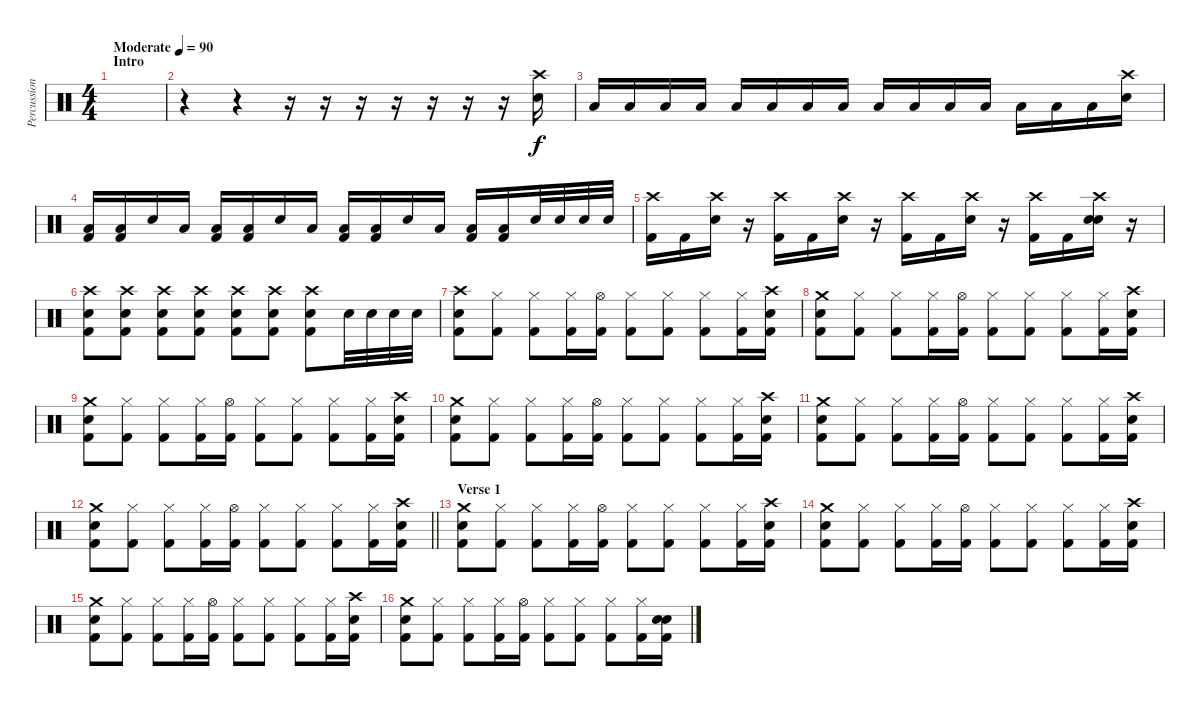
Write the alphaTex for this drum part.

\track ("Percussion" "Percussion") {instrument percussion}
\staff {score}
\articulation defaults
\ts (4 4)
\section ("" "Intro")
\tempo (90 "Moderate")
\clef neutral
\ks c
|
r.4 r.4 r.16 r.16 r.16 r.16 r.16 r.16 r.16 ("Crash high (hit)" "Electric Snare (hit)").16 |
"Low Tom (hit)".16 "Low Tom (hit)".16 "Low Floor Tom (hit)".16 "Low Floor Tom (hit)".16 "Low Tom (hit)".16 "Low Tom (hit)".16 "Low Floor Tom (hit)".16 "Low Floor Tom (hit)".16 "Low Tom (hit)".16 "Low Tom (hit)".16 "Low Floor Tom (hit)".16 "Low Floor Tom (hit)".16 "Low Tom (hit)".16 "Low Tom (hit)".16 "Low Floor Tom (hit)".16 ("Crash high (hit)" "Electric Snare (hit)").16 |
("Low Tom (hit)" "Kick (hit) 2").16 ("Low Tom (hit)" "Kick (hit) 2").16 "Electric Snare (hit)".16 "Low Floor Tom (hit)".16 ("Low Tom (hit)" "Kick (hit) 2").16 ("Low Tom (hit)" "Kick (hit) 2").16 "Electric Snare (hit)".16 "Low Floor Tom (hit)".16 ("Low Tom (hit)" "Kick (hit) 2").16 ("Low Tom (hit)" "Kick (hit) 2").16 "Electric Snare (hit)".16 "Low Floor Tom (hit)".16 ("Low Tom (hit)" "Kick (hit) 2").16 ("Low Tom (hit)" "Kick (hit) 2").16 "Electric Snare (hit)".32 "Electric Snare (hit)".32 "Electric Snare (hit)".32 "Electric Snare (hit)".32 |
("Crash high (hit)" "Kick (hit) 2").16 "Kick (hit) 2".16 ("Crash high (hit)" "Electric Snare (hit)").16 r.16 ("Crash high (hit)" "Kick (hit) 2").16 "Kick (hit) 2".16 ("Crash high (hit)" "Electric Snare (hit)").16 r.16 ("Crash high (hit)" "Kick (hit) 2").16 "Kick (hit) 2".16 ("Crash high (hit)" "Electric Snare (hit)").16 r.16 ("Crash high (hit)" "Kick (hit) 2").16 "Kick (hit) 2".16 ("Crash high (hit)" "Electric Snare (hit)" "Electric Snare (hit)").16 r.16 |
("Crash high (hit)" "Electric Snare (hit)" "Kick (hit) 2").8 ("Crash high (hit)" "Electric Snare (hit)" "Kick (hit) 2").8 ("Crash high (hit)" "Electric Snare (hit)" "Kick (hit) 2").8 ("Crash high (hit)" "Electric Snare (hit)" "Kick (hit) 2").8 ("Crash high (hit)" "Electric Snare (hit)" "Kick (hit) 2").8 ("Crash high (hit)" "Electric Snare (hit)" "Kick (hit) 2").8 ("Crash high (hit)" "Electric Snare (hit)" "Kick (hit) 2").8 "Electric Snare (hit)".32 "Electric Snare (hit)".32 "Electric Snare (hit)".32 "Electric Snare (hit)".32 |
("Crash high (hit)" "Electric Snare (hit)" "Kick (hit) 2").8 ("Hi-Hat (closed)" "Kick (hit) 2").8 ("Hi-Hat (closed)" "Kick (hit) 2").8 ("Hi-Hat (closed)" "Kick (hit) 2").16 ("Hi-Hat (open)" "Kick (hit) 2").16 ("Hi-Hat (closed)" "Kick (hit) 2").8 ("Hi-Hat (closed)" "Kick (hit) 2").8 ("Hi-Hat (closed)" "Kick (hit) 2").8 ("Hi-Hat (closed)" "Kick (hit) 2").16 ("Crash high (hit)" "Electric Snare (hit)" "Kick (hit) 2").16 |
("Crash medium (hit)" "Electric Snare (hit)" "Kick (hit) 2").8 ("Hi-Hat (closed)" "Kick (hit) 2").8 ("Hi-Hat (closed)" "Kick (hit) 2").8 ("Hi-Hat (closed)" "Kick (hit) 2").16 ("Hi-Hat (open)" "Kick (hit) 2").16 ("Hi-Hat (closed)" "Kick (hit) 2").8 ("Hi-Hat (closed)" "Kick (hit) 2").8 ("Hi-Hat (closed)" "Kick (hit) 2").8 ("Hi-Hat (closed)" "Kick (hit) 2").16 ("Crash high (hit)" "Electric Snare (hit)" "Kick (hit) 2").16 |
("Crash medium (hit)" "Electric Snare (hit)" "Kick (hit) 2").8 ("Hi-Hat (closed)" "Kick (hit) 2").8 ("Hi-Hat (closed)" "Kick (hit) 2").8 ("Hi-Hat (closed)" "Kick (hit) 2").16 ("Hi-Hat (open)" "Kick (hit) 2").16 ("Hi-Hat (closed)" "Kick (hit) 2").8 ("Hi-Hat (closed)" "Kick (hit) 2").8 ("Hi-Hat (closed)" "Kick (hit) 2").8 ("Hi-Hat (closed)" "Kick (hit) 2").16 ("Crash high (hit)" "Electric Snare (hit)" "Kick (hit) 2").16 |
("Crash medium (hit)" "Electric Snare (hit)" "Kick (hit) 2").8 ("Hi-Hat (closed)" "Kick (hit) 2").8 ("Hi-Hat (closed)" "Kick (hit) 2").8 ("Hi-Hat (closed)" "Kick (hit) 2").16 ("Hi-Hat (open)" "Kick (hit) 2").16 ("Hi-Hat (closed)" "Kick (hit) 2").8 ("Hi-Hat (closed)" "Kick (hit) 2").8 ("Hi-Hat (closed)" "Kick (hit) 2").8 ("Hi-Hat (closed)" "Kick (hit) 2").16 ("Crash high (hit)" "Electric Snare (hit)" "Kick (hit) 2").16 |
("Crash medium (hit)" "Electric Snare (hit)" "Kick (hit) 2").8 ("Hi-Hat (closed)" "Kick (hit) 2").8 ("Hi-Hat (closed)" "Kick (hit) 2").8 ("Hi-Hat (closed)" "Kick (hit) 2").16 ("Hi-Hat (open)" "Kick (hit) 2").16 ("Hi-Hat (closed)" "Kick (hit) 2").8 ("Hi-Hat (closed)" "Kick (hit) 2").8 ("Hi-Hat (closed)" "Kick (hit) 2").8 ("Hi-Hat (closed)" "Kick (hit) 2").16 ("Crash high (hit)" "Electric Snare (hit)" "Kick (hit) 2").16 |
\barLineRight lightlight
("Crash medium (hit)" "Electric Snare (hit)" "Kick (hit) 2").8 ("Hi-Hat (closed)" "Kick (hit) 2").8 ("Hi-Hat (closed)" "Kick (hit) 2").8 ("Hi-Hat (closed)" "Kick (hit) 2").16 ("Hi-Hat (open)" "Kick (hit) 2").16 ("Hi-Hat (closed)" "Kick (hit) 2").8 ("Hi-Hat (closed)" "Kick (hit) 2").8 ("Hi-Hat (closed)" "Kick (hit) 2").8 ("Hi-Hat (closed)" "Kick (hit) 2").16 ("Crash high (hit)" "Electric Snare (hit)" "Kick (hit) 2").16 |
\section ("" "Verse 1")
("Crash medium (hit)" "Electric Snare (hit)" "Kick (hit) 2").8 ("Hi-Hat (closed)" "Kick (hit) 2").8 ("Hi-Hat (closed)" "Kick (hit) 2").8 ("Hi-Hat (closed)" "Kick (hit) 2").16 ("Hi-Hat (open)" "Kick (hit) 2").16 ("Hi-Hat (closed)" "Kick (hit) 2").8 ("Hi-Hat (closed)" "Kick (hit) 2").8 ("Hi-Hat (closed)" "Kick (hit) 2").8 ("Hi-Hat (closed)" "Kick (hit) 2").16 ("Crash high (hit)" "Electric Snare (hit)" "Kick (hit) 2").16 |
("Crash medium (hit)" "Electric Snare (hit)" "Kick (hit) 2").8 ("Hi-Hat (closed)" "Kick (hit) 2").8 ("Hi-Hat (closed)" "Kick (hit) 2").8 ("Hi-Hat (closed)" "Kick (hit) 2").16 ("Hi-Hat (open)" "Kick (hit) 2").16 ("Hi-Hat (closed)" "Kick (hit) 2").8 ("Hi-Hat (closed)" "Kick (hit) 2").8 ("Hi-Hat (closed)" "Kick (hit) 2").8 ("Hi-Hat (closed)" "Kick (hit) 2").16 ("Crash high (hit)" "Electric Snare (hit)" "Kick (hit) 2").16 |
("Crash medium (hit)" "Electric Snare (hit)" "Kick (hit) 2").8 ("Hi-Hat (closed)" "Kick (hit) 2").8 ("Hi-Hat (closed)" "Kick (hit) 2").8 ("Hi-Hat (closed)" "Kick (hit) 2").16 ("Hi-Hat (open)" "Kick (hit) 2").16 ("Hi-Hat (closed)" "Kick (hit) 2").8 ("Hi-Hat (closed)" "Kick (hit) 2").8 ("Hi-Hat (closed)" "Kick (hit) 2").8 ("Hi-Hat (closed)" "Kick (hit) 2").16 ("Crash high (hit)" "Electric Snare (hit)" "Kick (hit) 2").16 |
("Crash medium (hit)" "Electric Snare (hit)" "Kick (hit) 2").8 ("Hi-Hat (closed)" "Kick (hit) 2").8 ("Hi-Hat (closed)" "Kick (hit) 2").8 ("Hi-Hat (closed)" "Kick (hit) 2").16 ("Hi-Hat (open)" "Kick (hit) 2").16 ("Hi-Hat (closed)" "Kick (hit) 2").8 ("Hi-Hat (closed)" "Kick (hit) 2").8 ("Hi-Hat (closed)" "Kick (hit) 2").8 ("Hi-Hat (closed)" "Kick (hit) 2").16 ("Electric Snare (hit)" "Electric Snare (hit)" "Kick (hit) 2").16
